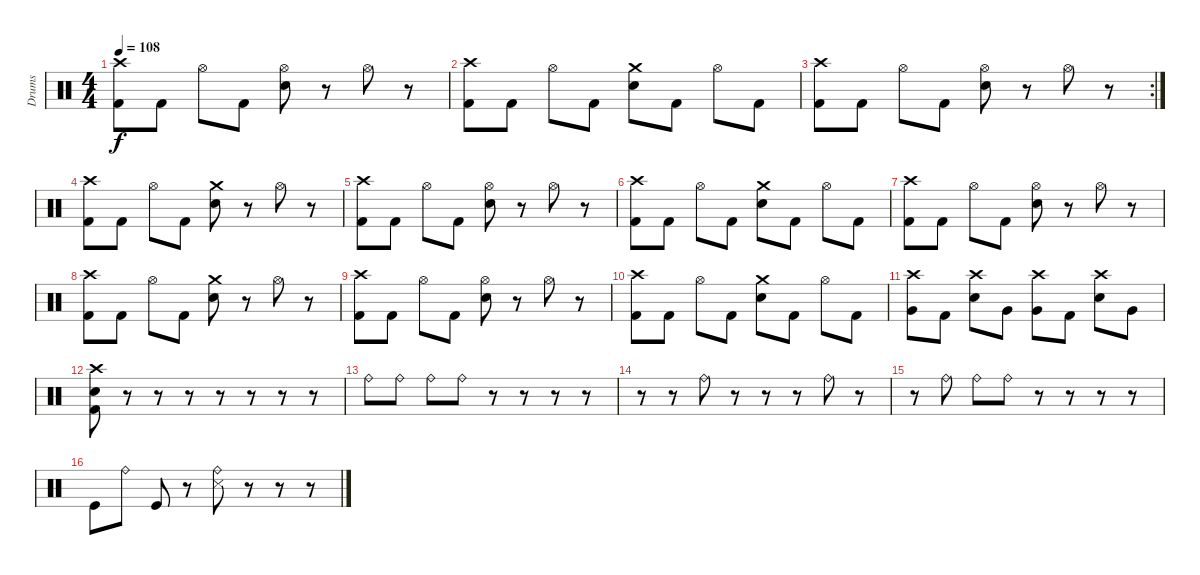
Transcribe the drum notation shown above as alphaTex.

\track ("Drums" "Drums") {instrument percussion}
\staff {score}
\articulation defaults
\ts (4 4)
\tempo 108
\clef neutral
\ks c
("Crash high (hit)" "Kick (hit) 2").8{dy f} "Kick (hit) 2".8 "Hi-Hat (open)".8 "Kick (hit) 2".8 ("Hi-Hat (open)" "Snare (hit) 2").8 r.8 "Hi-Hat (open)".8 r.8 |
("Crash high (hit)" "Kick (hit) 2").8 "Kick (hit) 2".8 "Hi-Hat (open)".8 "Kick (hit) 2".8 ("Crash medium (hit)" "Snare (hit) 2").8 "Kick (hit) 2".8 "Hi-Hat (open)".8 "Kick (hit) 2".8 |
\rc 2
("Crash high (hit)" "Kick (hit) 2").8 "Kick (hit) 2".8 "Hi-Hat (open)".8 "Kick (hit) 2".8 ("Hi-Hat (open)" "Snare (hit) 2").8 r.8 "Hi-Hat (open)".8 r.8 |
("Crash high (hit)" "Kick (hit) 2").8 "Kick (hit) 2".8 "Hi-Hat (open)".8 "Kick (hit) 2".8 ("Crash medium (hit)" "Snare (hit) 2").8 r.8 "Hi-Hat (open)".8 r.8 |
("Crash high (hit)" "Kick (hit) 2").8 "Kick (hit) 2".8 "Hi-Hat (open)".8 "Kick (hit) 2".8 ("Hi-Hat (open)" "Snare (hit) 2").8 r.8 "Hi-Hat (open)".8 r.8 |
("Crash high (hit)" "Kick (hit) 2").8 "Kick (hit) 2".8 "Hi-Hat (open)".8 "Kick (hit) 2".8 ("Crash medium (hit)" "Snare (hit) 2").8 "Kick (hit) 2".8 "Hi-Hat (open)".8 "Kick (hit) 2".8 |
("Crash high (hit)" "Kick (hit) 2").8 "Kick (hit) 2".8 "Hi-Hat (open)".8 "Kick (hit) 2".8 ("Hi-Hat (open)" "Snare (hit) 2").8 r.8 "Hi-Hat (open)".8 r.8 |
("Crash high (hit)" "Kick (hit) 2").8 "Kick (hit) 2".8 "Hi-Hat (open)".8 "Kick (hit) 2".8 ("Crash medium (hit)" "Snare (hit) 2").8 r.8 "Hi-Hat (open)".8 r.8 |
("Crash high (hit)" "Kick (hit) 2").8 "Kick (hit) 2".8 "Hi-Hat (open)".8 "Kick (hit) 2".8 ("Hi-Hat (open)" "Snare (hit) 2").8 r.8 "Hi-Hat (open)".8 r.8 |
("Crash high (hit)" "Kick (hit) 2").8 "Kick (hit) 2".8 "Hi-Hat (open)".8 "Kick (hit) 2".8 ("Crash medium (hit)" "Snare (hit) 2").8 "Kick (hit) 2".8 "Hi-Hat (open)".8 "Kick (hit) 2".8 |
("Very Low Tom (hit)" "Crash high (hit)").8 "Kick (hit) 2".8 ("Snare (hit) 2" "Crash high (hit)").8 "Very Low Tom (hit)".8 ("Very Low Tom (hit)" "Crash high (hit)").8 "Kick (hit) 2".8 ("Snare (hit) 2" "Crash high (hit)").8 "Very Low Tom (hit)".8 |
("Snare (hit) 2" "Crash high (hit)" "Kick (hit) 2").8 r.8 r.8 r.8 r.8 r.8 r.8 r.8 |
"Ride (bell)".8 "Ride (bell)".8 "Ride (bell)".8 "Ride (bell)".8 r.8 r.8 r.8 r.8 |
r.8 r.8 "Ride (bell)".8 r.8 r.8 r.8 "Ride (bell)".8 r.8 |
r.8 "Ride (bell)".8 "Ride (bell)".8 "Ride (bell)".8 r.8 r.8 r.8 r.8 |
"Kick (hit)".8 "Ride (bell)".8 "Kick (hit)".8 r.8 ("Ride (bell)" "Snare (side stick) 3").8 r.8 r.8 r.8
